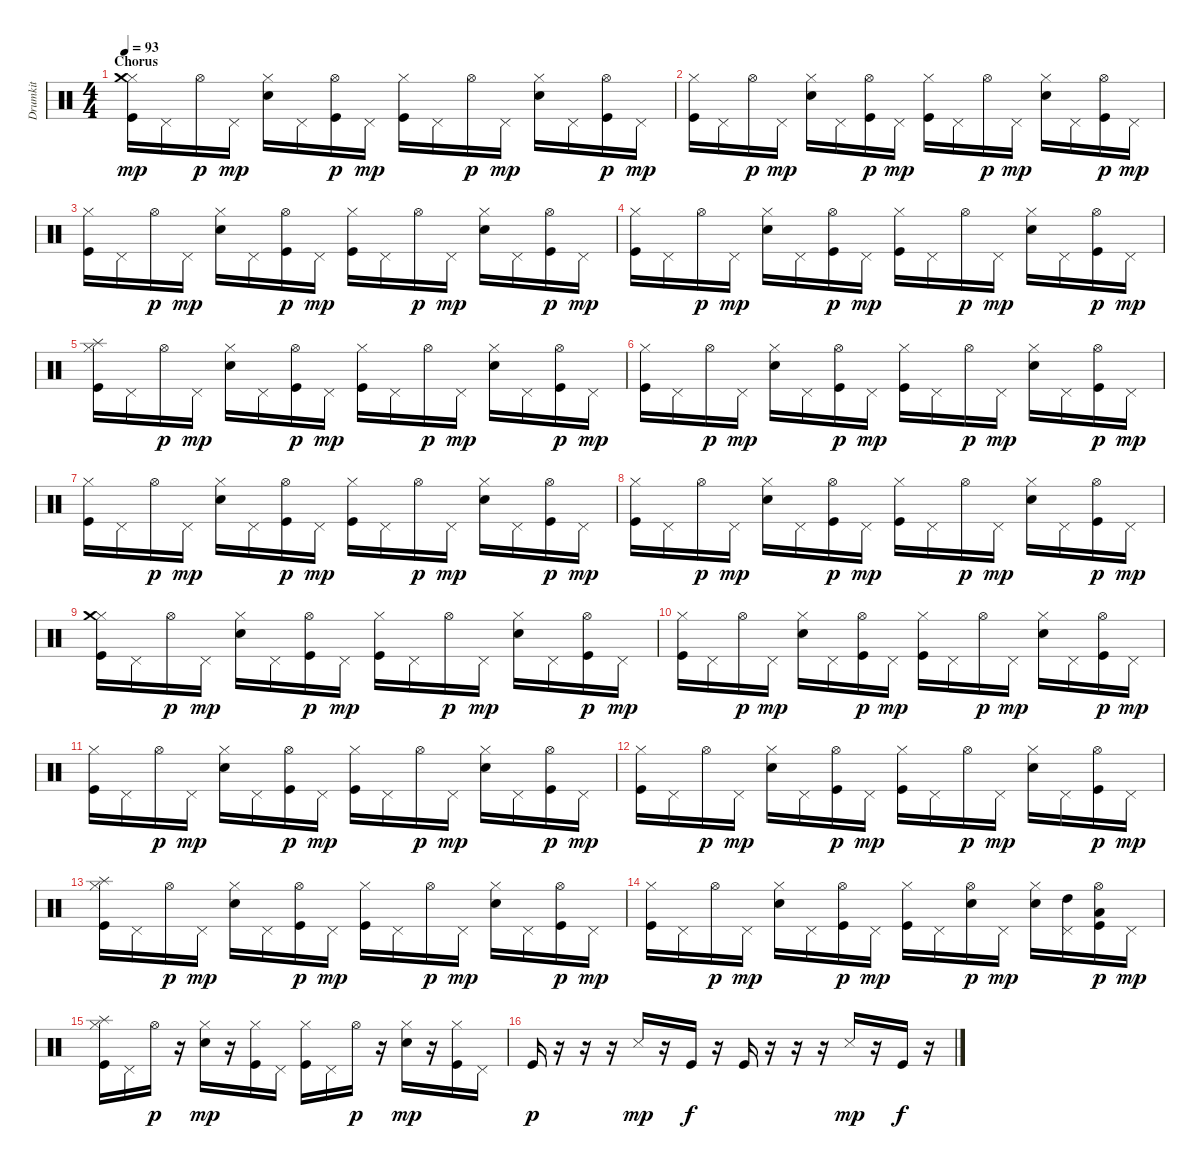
\track ("Drumkit" "Drumkit") {instrument percussion}
\staff {score}
\articulation defaults
\ts (4 4)
\section ("" "Chorus")
\tempo 93
\clef neutral
\ks c
("Hi-Hat (closed)" "Crash medium (hit)" "Kick (hit)").16{dy mp} "Pedal Hi-Hat (hit)".16 "Hi-Hat (open)".16{dy p} "Pedal Hi-Hat (hit)".16{dy mp} ("Hi-Hat (closed)" "Snare (hit) 2").16 "Pedal Hi-Hat (hit)".16 ("Hi-Hat (open)" "Kick (hit)").16{dy p} "Pedal Hi-Hat (hit)".16{dy mp} ("Hi-Hat (closed)" "Kick (hit)").16 "Pedal Hi-Hat (hit)".16 "Hi-Hat (open)".16{dy p} "Pedal Hi-Hat (hit)".16{dy mp} ("Hi-Hat (closed)" "Snare (hit) 2").16 "Pedal Hi-Hat (hit)".16 ("Hi-Hat (open)" "Kick (hit)").16{dy p} "Pedal Hi-Hat (hit)".16{dy mp} |
("Hi-Hat (closed)" "Kick (hit)").16 "Pedal Hi-Hat (hit)".16 "Hi-Hat (open)".16{dy p} "Pedal Hi-Hat (hit)".16{dy mp} ("Hi-Hat (closed)" "Snare (hit) 2").16 "Pedal Hi-Hat (hit)".16 ("Hi-Hat (open)" "Kick (hit)").16{dy p} "Pedal Hi-Hat (hit)".16{dy mp} ("Hi-Hat (closed)" "Kick (hit)").16 "Pedal Hi-Hat (hit)".16 "Hi-Hat (open)".16{dy p} "Pedal Hi-Hat (hit)".16{dy mp} ("Hi-Hat (closed)" "Snare (hit) 2").16 "Pedal Hi-Hat (hit)".16 ("Hi-Hat (open)" "Kick (hit)").16{dy p} "Pedal Hi-Hat (hit)".16{dy mp} |
("Hi-Hat (closed)" "Kick (hit)").16 "Pedal Hi-Hat (hit)".16 "Hi-Hat (open)".16{dy p} "Pedal Hi-Hat (hit)".16{dy mp} ("Hi-Hat (closed)" "Snare (hit) 2").16 "Pedal Hi-Hat (hit)".16 ("Hi-Hat (open)" "Kick (hit)").16{dy p} "Pedal Hi-Hat (hit)".16{dy mp} ("Hi-Hat (closed)" "Kick (hit)").16 "Pedal Hi-Hat (hit)".16 "Hi-Hat (open)".16{dy p} "Pedal Hi-Hat (hit)".16{dy mp} ("Hi-Hat (closed)" "Snare (hit) 2").16 "Pedal Hi-Hat (hit)".16 ("Hi-Hat (open)" "Kick (hit)").16{dy p} "Pedal Hi-Hat (hit)".16{dy mp} |
("Hi-Hat (closed)" "Kick (hit)").16 "Pedal Hi-Hat (hit)".16 "Hi-Hat (open)".16{dy p} "Pedal Hi-Hat (hit)".16{dy mp} ("Hi-Hat (closed)" "Snare (hit) 2").16 "Pedal Hi-Hat (hit)".16 ("Hi-Hat (open)" "Kick (hit)").16{dy p} "Pedal Hi-Hat (hit)".16{dy mp} ("Hi-Hat (closed)" "Kick (hit)").16 "Pedal Hi-Hat (hit)".16 "Hi-Hat (open)".16{dy p} "Pedal Hi-Hat (hit)".16{dy mp} ("Hi-Hat (closed)" "Snare (hit) 2").16 "Pedal Hi-Hat (hit)".16 ("Hi-Hat (open)" "Kick (hit)").16{dy p} "Pedal Hi-Hat (hit)".16{dy mp} |
("Hi-Hat (closed)" "Splash (hit)" "Kick (hit)").16 "Pedal Hi-Hat (hit)".16 "Hi-Hat (open)".16{dy p} "Pedal Hi-Hat (hit)".16{dy mp} ("Hi-Hat (closed)" "Snare (hit) 2").16 "Pedal Hi-Hat (hit)".16 ("Hi-Hat (open)" "Kick (hit)").16{dy p} "Pedal Hi-Hat (hit)".16{dy mp} ("Hi-Hat (closed)" "Kick (hit)").16 "Pedal Hi-Hat (hit)".16 "Hi-Hat (open)".16{dy p} "Pedal Hi-Hat (hit)".16{dy mp} ("Hi-Hat (closed)" "Snare (hit) 2").16 "Pedal Hi-Hat (hit)".16 ("Hi-Hat (open)" "Kick (hit)").16{dy p} "Pedal Hi-Hat (hit)".16{dy mp} |
("Hi-Hat (closed)" "Kick (hit)").16 "Pedal Hi-Hat (hit)".16 "Hi-Hat (open)".16{dy p} "Pedal Hi-Hat (hit)".16{dy mp} ("Hi-Hat (closed)" "Snare (hit) 2").16 "Pedal Hi-Hat (hit)".16 ("Hi-Hat (open)" "Kick (hit)").16{dy p} "Pedal Hi-Hat (hit)".16{dy mp} ("Hi-Hat (closed)" "Kick (hit)").16 "Pedal Hi-Hat (hit)".16 "Hi-Hat (open)".16{dy p} "Pedal Hi-Hat (hit)".16{dy mp} ("Hi-Hat (closed)" "Snare (hit) 2").16 "Pedal Hi-Hat (hit)".16 ("Hi-Hat (open)" "Kick (hit)").16{dy p} "Pedal Hi-Hat (hit)".16{dy mp} |
("Hi-Hat (closed)" "Kick (hit)").16 "Pedal Hi-Hat (hit)".16 "Hi-Hat (open)".16{dy p} "Pedal Hi-Hat (hit)".16{dy mp} ("Hi-Hat (closed)" "Snare (hit) 2").16 "Pedal Hi-Hat (hit)".16 ("Hi-Hat (open)" "Kick (hit)").16{dy p} "Pedal Hi-Hat (hit)".16{dy mp} ("Hi-Hat (closed)" "Kick (hit)").16 "Pedal Hi-Hat (hit)".16 "Hi-Hat (open)".16{dy p} "Pedal Hi-Hat (hit)".16{dy mp} ("Hi-Hat (closed)" "Snare (hit) 2").16 "Pedal Hi-Hat (hit)".16 ("Hi-Hat (open)" "Kick (hit)").16{dy p} "Pedal Hi-Hat (hit)".16{dy mp} |
("Hi-Hat (closed)" "Kick (hit)").16 "Pedal Hi-Hat (hit)".16 "Hi-Hat (open)".16{dy p} "Pedal Hi-Hat (hit)".16{dy mp} ("Hi-Hat (closed)" "Snare (hit) 2").16 "Pedal Hi-Hat (hit)".16 ("Hi-Hat (open)" "Kick (hit)").16{dy p} "Pedal Hi-Hat (hit)".16{dy mp} ("Hi-Hat (closed)" "Kick (hit)").16 "Pedal Hi-Hat (hit)".16 "Hi-Hat (open)".16{dy p} "Pedal Hi-Hat (hit)".16{dy mp} ("Hi-Hat (closed)" "Snare (hit) 2").16 "Pedal Hi-Hat (hit)".16 ("Hi-Hat (open)" "Kick (hit)").16{dy p} "Pedal Hi-Hat (hit)".16{dy mp} |
("Hi-Hat (closed)" "Crash medium (hit)" "Kick (hit)").16 "Pedal Hi-Hat (hit)".16 "Hi-Hat (open)".16{dy p} "Pedal Hi-Hat (hit)".16{dy mp} ("Hi-Hat (closed)" "Snare (hit) 2").16 "Pedal Hi-Hat (hit)".16 ("Hi-Hat (open)" "Kick (hit)").16{dy p} "Pedal Hi-Hat (hit)".16{dy mp} ("Hi-Hat (closed)" "Kick (hit)").16 "Pedal Hi-Hat (hit)".16 "Hi-Hat (open)".16{dy p} "Pedal Hi-Hat (hit)".16{dy mp} ("Hi-Hat (closed)" "Snare (hit) 2").16 "Pedal Hi-Hat (hit)".16 ("Hi-Hat (open)" "Kick (hit)").16{dy p} "Pedal Hi-Hat (hit)".16{dy mp} |
("Hi-Hat (closed)" "Kick (hit)").16 "Pedal Hi-Hat (hit)".16 "Hi-Hat (open)".16{dy p} "Pedal Hi-Hat (hit)".16{dy mp} ("Hi-Hat (closed)" "Snare (hit) 2").16 "Pedal Hi-Hat (hit)".16 ("Hi-Hat (open)" "Kick (hit)").16{dy p} "Pedal Hi-Hat (hit)".16{dy mp} ("Hi-Hat (closed)" "Kick (hit)").16 "Pedal Hi-Hat (hit)".16 "Hi-Hat (open)".16{dy p} "Pedal Hi-Hat (hit)".16{dy mp} ("Hi-Hat (closed)" "Snare (hit) 2").16 "Pedal Hi-Hat (hit)".16 ("Hi-Hat (open)" "Kick (hit)").16{dy p} "Pedal Hi-Hat (hit)".16{dy mp} |
("Hi-Hat (closed)" "Kick (hit)").16 "Pedal Hi-Hat (hit)".16 "Hi-Hat (open)".16{dy p} "Pedal Hi-Hat (hit)".16{dy mp} ("Hi-Hat (closed)" "Snare (hit) 2").16 "Pedal Hi-Hat (hit)".16 ("Hi-Hat (open)" "Kick (hit)").16{dy p} "Pedal Hi-Hat (hit)".16{dy mp} ("Hi-Hat (closed)" "Kick (hit)").16 "Pedal Hi-Hat (hit)".16 "Hi-Hat (open)".16{dy p} "Pedal Hi-Hat (hit)".16{dy mp} ("Hi-Hat (closed)" "Snare (hit) 2").16 "Pedal Hi-Hat (hit)".16 ("Hi-Hat (open)" "Kick (hit)").16{dy p} "Pedal Hi-Hat (hit)".16{dy mp} |
("Hi-Hat (closed)" "Kick (hit)").16 "Pedal Hi-Hat (hit)".16 "Hi-Hat (open)".16{dy p} "Pedal Hi-Hat (hit)".16{dy mp} ("Hi-Hat (closed)" "Snare (hit) 2").16 "Pedal Hi-Hat (hit)".16 ("Hi-Hat (open)" "Kick (hit)").16{dy p} "Pedal Hi-Hat (hit)".16{dy mp} ("Hi-Hat (closed)" "Kick (hit)").16 "Pedal Hi-Hat (hit)".16 "Hi-Hat (open)".16{dy p} "Pedal Hi-Hat (hit)".16{dy mp} ("Hi-Hat (closed)" "Snare (hit) 2").16 "Pedal Hi-Hat (hit)".16 ("Hi-Hat (open)" "Kick (hit)").16{dy p} "Pedal Hi-Hat (hit)".16{dy mp} |
("Hi-Hat (closed)" "Splash (hit)" "Kick (hit)").16 "Pedal Hi-Hat (hit)".16 "Hi-Hat (open)".16{dy p} "Pedal Hi-Hat (hit)".16{dy mp} ("Hi-Hat (closed)" "Snare (hit) 2").16 "Pedal Hi-Hat (hit)".16 ("Hi-Hat (open)" "Kick (hit)").16{dy p} "Pedal Hi-Hat (hit)".16{dy mp} ("Hi-Hat (closed)" "Kick (hit)").16 "Pedal Hi-Hat (hit)".16 "Hi-Hat (open)".16{dy p} "Pedal Hi-Hat (hit)".16{dy mp} ("Hi-Hat (closed)" "Snare (hit) 2").16 "Pedal Hi-Hat (hit)".16 ("Hi-Hat (open)" "Kick (hit)").16{dy p} "Pedal Hi-Hat (hit)".16{dy mp} |
("Hi-Hat (closed)" "Kick (hit)").16 "Pedal Hi-Hat (hit)".16 "Hi-Hat (open)".16{dy p} "Pedal Hi-Hat (hit)".16{dy mp} ("Hi-Hat (closed)" "Snare (hit) 2").16 "Pedal Hi-Hat (hit)".16 ("Hi-Hat (open)" "Kick (hit)").16{dy p} "Pedal Hi-Hat (hit)".16{dy mp} ("Hi-Hat (closed)" "Kick (hit)").16 "Pedal Hi-Hat (hit)".16 ("Hi-Hat (open)" "Snare (hit) 2").16{dy p} "Pedal Hi-Hat (hit)".16{dy mp} ("Hi-Hat (closed)" "Snare (hit) 2").16 ("Pedal Hi-Hat (hit)" "High Tom (hit)").16 ("Hi-Hat (open)" "Low Tom (hit)" "Kick (hit)").16{dy p} "Pedal Hi-Hat (hit)".16{dy mp} |
("Hi-Hat (closed)" "Splash (hit)" "Kick (hit)").16 "Pedal Hi-Hat (hit)".16 "Hi-Hat (open)".16{dy p} r.16 ("Hi-Hat (closed)" "Snare (hit) 2").16{dy mp} r.16 ("Hi-Hat (closed)" "Kick (hit)").16 "Pedal Hi-Hat (hit)".16 ("Hi-Hat (closed)" "Kick (hit)").16 "Pedal Hi-Hat (hit)".16 "Hi-Hat (open)".16{dy p} r.16 ("Hi-Hat (closed)" "Snare (hit) 2").16{dy mp} r.16 ("Hi-Hat (closed)" "Kick (hit)").16 "Pedal Hi-Hat (hit)".16 |
"Kick (hit)".16{dy p} r.16 r.16 r.16 "Snare (side stick) 3".16{dy mp} r.16 "Kick (hit)".16{dy f} r.16 "Kick (hit)".16 r.16 r.16 r.16 "Snare (side stick) 3".16{dy mp} r.16 "Kick (hit)".16{dy f} r.16
